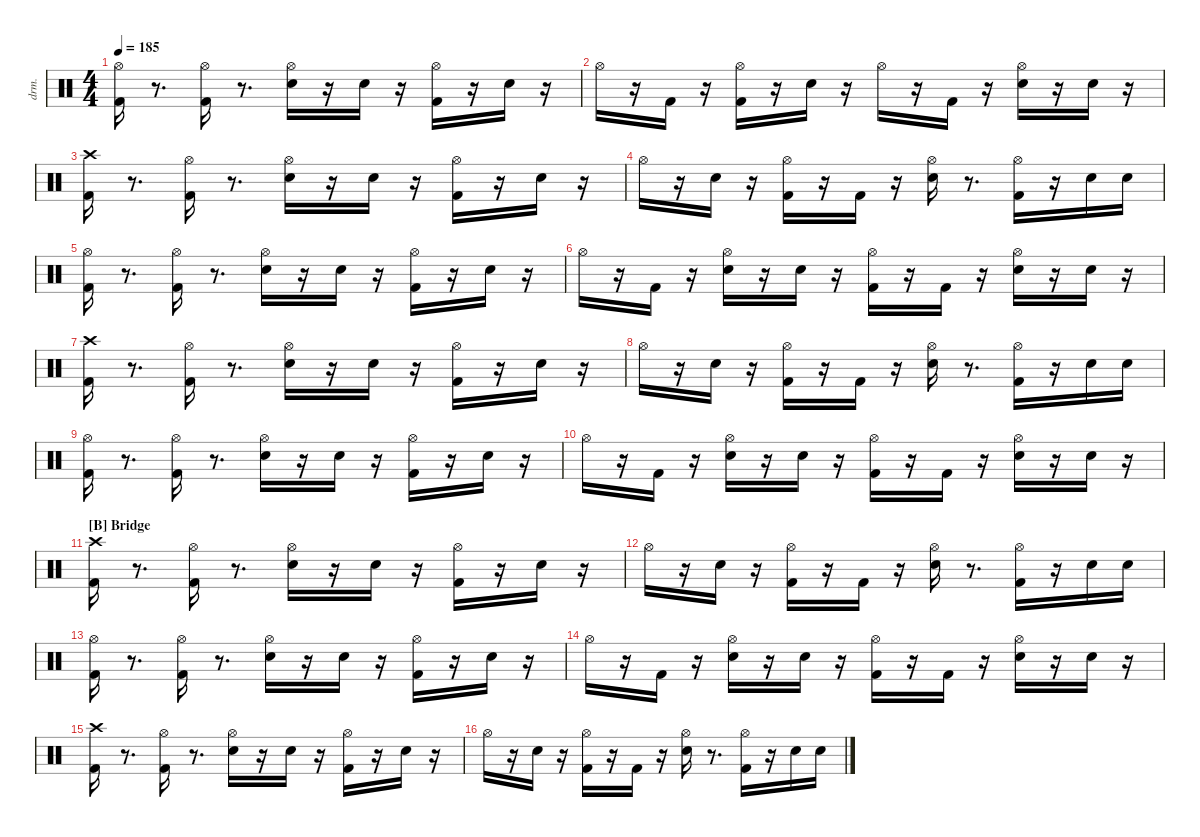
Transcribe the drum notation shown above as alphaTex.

\defaultSystemsLayout 4
\hideDynamics
\bracketExtendMode nobrackets
\otherSystemsTrackNameOrientation horizontal
\track ("drums" "drm.") {instrument percussion}
\staff {score}
\articulation defaults
\ts (4 4)
\tempo 185
\clef neutral
\ks aminor
("Kick (hit) 2" "Hi-Hat (open)"{acc #}).16{dy ff beam Down} r.8{d beam Down} ("Kick (hit) 2" "Hi-Hat (open)"{acc #}).16{beam Down} r.8{d beam Down} ("Snare (hit) 2" "Hi-Hat (open)"{acc #}).16{beam Down} r.16{beam Down} "Snare (hit) 2".16{dy p beam Down} r.16{beam Down} ("Kick (hit) 2" "Hi-Hat (open)"{acc #}).16{dy ff beam Down} r.16{beam Down} "Snare (hit) 2".16{dy f beam Down} r.16{beam Down} |
"Hi-Hat (open)"{acc #}.16{dy ff beam Down} r.16{beam Down} "Kick (hit) 2".16{dy f beam Up} r.16{beam Up} ("Kick (hit) 2" "Hi-Hat (open)"{acc #}).16{dy mf beam Down} r.16{beam Down} "Snare (hit) 2".16{dy f beam Down} r.16{beam Down} "Hi-Hat (open)"{acc #}.16{dy ff beam Down} r.16{beam Down} "Kick (hit) 2".16{dy fff beam Up} r.16{beam Up} ("Snare (hit) 2" "Hi-Hat (open)"{acc #}).16{dy ff beam Down} r.16{beam Down} "Snare (hit) 2".16{dy p beam Down} r.16{beam Down} |
("Kick (hit) 2" "Crash high (hit)"{acc #}).16{dy ff beam Down} r.8{d beam Down} ("Kick (hit) 2" "Hi-Hat (open)"{acc #}).16{beam Down} r.8{d beam Down} ("Snare (hit) 2" "Hi-Hat (open)"{acc #}).16{beam Down} r.16{beam Down} "Snare (hit) 2".16{dy p beam Down} r.16{beam Down} ("Kick (hit) 2" "Hi-Hat (open)"{acc #}).16{dy ff beam Down} r.16{beam Down} "Snare (hit) 2".16{beam Down} r.16{beam Down} |
"Hi-Hat (open)"{acc #}.16{dy f beam Down} r.16{beam Down} "Snare (hit) 2".16{dy ff beam Down} r.16{beam Down} ("Kick (hit) 2" "Hi-Hat (open)"{acc #}).16{dy f beam Down} r.16{beam Down} "Kick (hit) 2".16{dy ff beam Up} r.16{beam Up} ("Snare (hit) 2" "Hi-Hat (open)"{acc #}).16{beam Down} r.8{d beam Down} ("Kick (hit) 2" "Hi-Hat (open)"{acc #}).16{beam Down} r.16{beam Down} "Snare (hit) 2".16{dy mf beam Down} "Snare (hit) 2".16{dy pp beam Down} |
("Kick (hit) 2" "Hi-Hat (open)"{acc #}).16{dy ff beam Down} r.8{d beam Down} ("Kick (hit) 2" "Hi-Hat (open)"{acc #}).16{beam Down} r.8{d beam Down} ("Snare (hit) 2" "Hi-Hat (open)"{acc #}).16{beam Down} r.16{beam Down} "Snare (hit) 2".16{dy p beam Down} r.16{beam Down} ("Kick (hit) 2" "Hi-Hat (open)"{acc #}).16{dy ff beam Down} r.16{beam Down} "Snare (hit) 2".16{dy f beam Down} r.16{beam Down} |
"Hi-Hat (open)"{acc #}.16{dy ff beam Down} r.16{beam Down} "Kick (hit) 2".16{beam Up} r.16{beam Up} ("Snare (hit) 2" "Hi-Hat (open)"{acc #}).16{beam Down} r.16{beam Down} "Snare (hit) 2".16{dy p beam Down} r.16{beam Down} ("Kick (hit) 2" "Hi-Hat (open)"{acc #}).16{dy mf beam Down} r.16{beam Down} "Kick (hit) 2".16{dy ff beam Up} r.16{beam Up} ("Snare (hit) 2" "Hi-Hat (open)"{acc #}).16{beam Down} r.16{beam Down} "Snare (hit) 2".16{beam Down} r.16{beam Down} |
("Kick (hit) 2" "Crash high (hit)"{acc #}).16{beam Down} r.8{d beam Down} ("Kick (hit) 2" "Hi-Hat (open)"{acc #}).16{beam Down} r.8{d beam Down} ("Snare (hit) 2" "Hi-Hat (open)"{acc #}).16{beam Down} r.16{beam Down} "Snare (hit) 2".16{dy p beam Down} r.16{beam Down} ("Kick (hit) 2" "Hi-Hat (open)"{acc #}).16{dy mf beam Down} r.16{beam Down} "Snare (hit) 2".16{dy ff beam Down} r.16{beam Down} |
"Hi-Hat (open)"{acc #}.16{dy f beam Down} r.16{beam Down} "Snare (hit) 2".16{dy ff beam Down} r.16{beam Down} ("Kick (hit) 2" "Hi-Hat (open)"{acc #}).16{dy f beam Down} r.16{beam Down} "Kick (hit) 2".16{dy ff beam Up} r.16{beam Up} ("Snare (hit) 2" "Hi-Hat (open)"{acc #}).16{dy f beam Down} r.8{d beam Down} ("Kick (hit) 2" "Hi-Hat (open)"{acc #}).16{dy ff beam Down} r.16{beam Down} "Snare (hit) 2".16{dy mf beam Down} "Snare (hit) 2".16{dy pp beam Down} |
("Kick (hit) 2" "Hi-Hat (open)"{acc #}).16{dy ff beam Down} r.8{d beam Down} ("Kick (hit) 2" "Hi-Hat (open)"{acc #}).16{beam Down} r.8{d beam Down} ("Snare (hit) 2" "Hi-Hat (open)"{acc #}).16{beam Down} r.16{beam Down} "Snare (hit) 2".16{dy p beam Down} r.16{beam Down} ("Kick (hit) 2" "Hi-Hat (open)"{acc #}).16{dy ff beam Down} r.16{beam Down} "Snare (hit) 2".16{dy f beam Down} r.16{beam Down} |
"Hi-Hat (open)"{acc #}.16{dy ff beam Down} r.16{beam Down} "Kick (hit) 2".16{beam Up} r.16{beam Up} ("Snare (hit) 2" "Hi-Hat (open)"{acc #}).16{beam Down} r.16{beam Down} "Snare (hit) 2".16{dy p beam Down} r.16{beam Down} ("Kick (hit) 2" "Hi-Hat (open)"{acc #}).16{dy mf beam Down} r.16{beam Down} "Kick (hit) 2".16{dy ff beam Up} r.16{beam Up} ("Snare (hit) 2" "Hi-Hat (open)"{acc #}).16{beam Down} r.16{beam Down} "Snare (hit) 2".16{beam Down} r.16{beam Down} |
\section ("B" "Bridge")
("Kick (hit) 2" "Crash high (hit)"{acc #}).16{beam Down} r.8{d beam Down} ("Kick (hit) 2" "Hi-Hat (open)"{acc #}).16{beam Down} r.8{d beam Down} ("Snare (hit) 2" "Hi-Hat (open)"{acc #}).16{beam Down} r.16{beam Down} "Snare (hit) 2".16{dy p beam Down} r.16{beam Down} ("Kick (hit) 2" "Hi-Hat (open)"{acc #}).16{dy ff beam Down} r.16{beam Down} "Snare (hit) 2".16{beam Down} r.16{beam Down} |
"Hi-Hat (open)"{acc #}.16{dy f beam Down} r.16{beam Down} "Snare (hit) 2".16{dy ff beam Down} r.16{beam Down} ("Kick (hit) 2" "Hi-Hat (open)"{acc #}).16{dy f beam Down} r.16{beam Down} "Kick (hit) 2".16{dy ff beam Up} r.16{beam Up} ("Snare (hit) 2" "Hi-Hat (open)"{acc #}).16{beam Down} r.8{d beam Down} ("Kick (hit) 2" "Hi-Hat (open)"{acc #}).16{beam Down} r.16{beam Down} "Snare (hit) 2".16{dy mf beam Down} "Snare (hit) 2".16{dy pp beam Down} |
("Kick (hit) 2" "Hi-Hat (open)"{acc #}).16{dy ff beam Down} r.8{d beam Down} ("Kick (hit) 2" "Hi-Hat (open)"{acc #}).16{beam Down} r.8{d beam Down} ("Snare (hit) 2" "Hi-Hat (open)"{acc #}).16{beam Down} r.16{beam Down} "Snare (hit) 2".16{dy p beam Down} r.16{beam Down} ("Kick (hit) 2" "Hi-Hat (open)"{acc #}).16{dy ff beam Down} r.16{beam Down} "Snare (hit) 2".16{dy f beam Down} r.16{beam Down} |
"Hi-Hat (open)"{acc #}.16{dy ff beam Down} r.16{beam Down} "Kick (hit) 2".16{beam Up} r.16{beam Up} ("Snare (hit) 2" "Hi-Hat (open)"{acc #}).16{dy mf beam Down} r.16{beam Down} "Snare (hit) 2".16{dy p beam Down} r.16{beam Down} ("Kick (hit) 2" "Hi-Hat (open)"{acc #}).16{dy mf beam Down} r.16{beam Down} "Kick (hit) 2".16{dy ff beam Up} r.16{beam Up} ("Snare (hit) 2" "Hi-Hat (open)"{acc #}).16{beam Down} r.16{beam Down} "Snare (hit) 2".16{beam Down} r.16{beam Down} |
("Kick (hit) 2" "Crash high (hit)"{acc #}).16{beam Down} r.8{d beam Down} ("Kick (hit) 2" "Hi-Hat (open)"{acc #}).16{beam Down} r.8{d beam Down} ("Snare (hit) 2" "Hi-Hat (open)"{acc #}).16{beam Down} r.16{beam Down} "Snare (hit) 2".16{dy p beam Down} r.16{beam Down} ("Kick (hit) 2" "Hi-Hat (open)"{acc #}).16{dy ff beam Down} r.16{beam Down} "Snare (hit) 2".16{beam Down} r.16{beam Down} |
"Hi-Hat (open)"{acc #}.16{dy f beam Down} r.16{beam Down} "Snare (hit) 2".16{dy ff beam Down} r.16{beam Down} ("Kick (hit) 2" "Hi-Hat (open)"{acc #}).16{dy f beam Down} r.16{beam Down} "Kick (hit) 2".16{dy ff beam Up} r.16{beam Up} ("Snare (hit) 2" "Hi-Hat (open)"{acc #}).16{beam Down} r.8{d beam Down} ("Kick (hit) 2" "Hi-Hat (open)"{acc #}).16{beam Down} r.16{beam Down} "Snare (hit) 2".16{dy mf beam Down} "Snare (hit) 2".16{dy pp beam Down}
